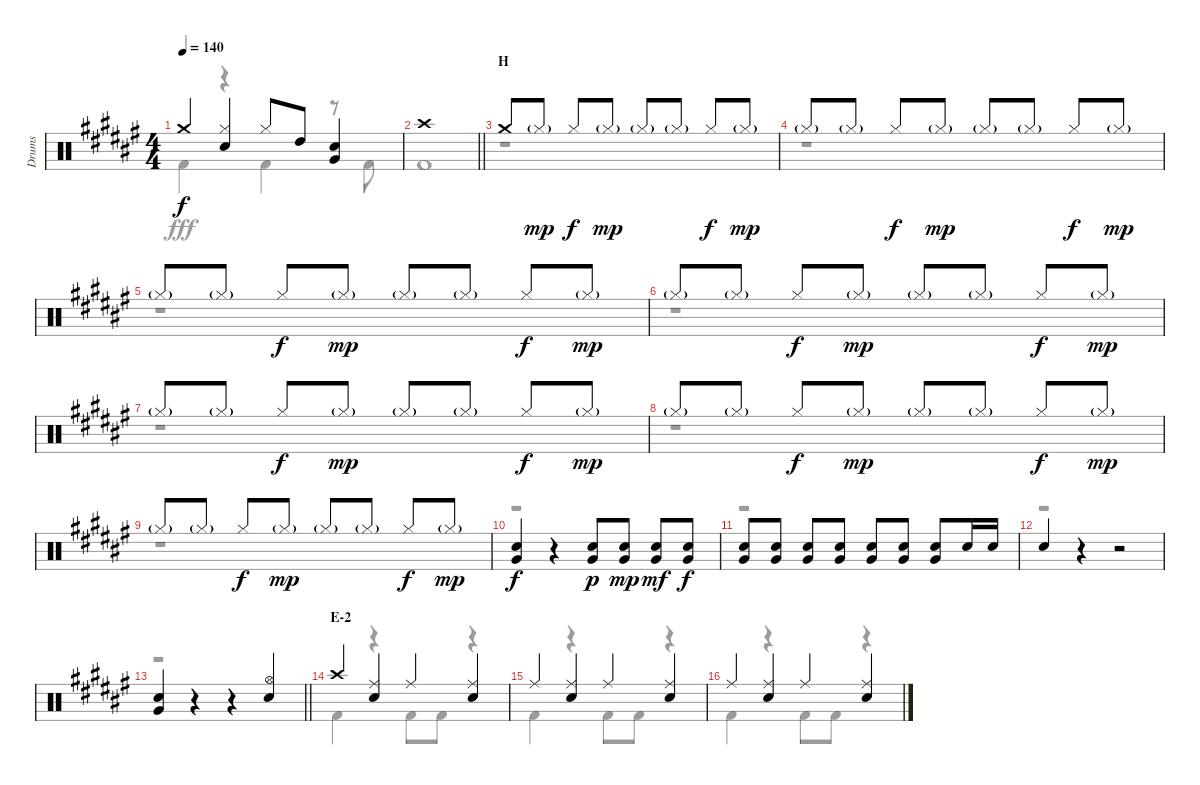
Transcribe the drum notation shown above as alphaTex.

\track ("Drums" "Drums") {instrument percussion}
\staff {score}
\articulation defaults
\voice
\ts (4 4)
\tempo 140
\clef neutral
\ks f# "Crash medium (hit)".4{dy f}
("Hi-Hat (closed)" "Snare (hit) 2").4 "Hi-Hat (closed)".8 "High Tom (hit)".8 ("Snare (hit) 2" "Very Low Tom (hit)").4 |
\barLineRight lightlight "Crash high (hit)".1
|
\section ("" "H")
"Crash medium (hit)".8 "Hi-Hat (closed)"{g}.8{dy mp} "Hi-Hat (closed)".8{dy f} "Hi-Hat (closed)"{g}.8{dy mp} "Hi-Hat (closed)"{g}.8 "Hi-Hat (closed)"{g}.8 "Hi-Hat (closed)".8{dy f} "Hi-Hat (closed)"{g}.8{dy mp} |
"Hi-Hat (closed)"{g}.8 "Hi-Hat (closed)"{g}.8 "Hi-Hat (closed)".8{dy f} "Hi-Hat (closed)"{g}.8{dy mp} "Hi-Hat (closed)"{g}.8 "Hi-Hat (closed)"{g}.8 "Hi-Hat (closed)".8{dy f} "Hi-Hat (closed)"{g}.8{dy mp} |
"Hi-Hat (closed)"{g}.8 "Hi-Hat (closed)"{g}.8 "Hi-Hat (closed)".8{dy f} "Hi-Hat (closed)"{g}.8{dy mp} "Hi-Hat (closed)"{g}.8 "Hi-Hat (closed)"{g}.8 "Hi-Hat (closed)".8{dy f} "Hi-Hat (closed)"{g}.8{dy mp} |
"Hi-Hat (closed)"{g}.8 "Hi-Hat (closed)"{g}.8 "Hi-Hat (closed)".8{dy f} "Hi-Hat (closed)"{g}.8{dy mp} "Hi-Hat (closed)"{g}.8 "Hi-Hat (closed)"{g}.8 "Hi-Hat (closed)".8{dy f} "Hi-Hat (closed)"{g}.8{dy mp} |
"Hi-Hat (closed)"{g}.8 "Hi-Hat (closed)"{g}.8 "Hi-Hat (closed)".8{dy f} "Hi-Hat (closed)"{g}.8{dy mp} "Hi-Hat (closed)"{g}.8 "Hi-Hat (closed)"{g}.8 "Hi-Hat (closed)".8{dy f} "Hi-Hat (closed)"{g}.8{dy mp} |
"Hi-Hat (closed)"{g}.8 "Hi-Hat (closed)"{g}.8 "Hi-Hat (closed)".8{dy f} "Hi-Hat (closed)"{g}.8{dy mp} "Hi-Hat (closed)"{g}.8 "Hi-Hat (closed)"{g}.8 "Hi-Hat (closed)".8{dy f} "Hi-Hat (closed)"{g}.8{dy mp} |
"Hi-Hat (closed)"{g}.8 "Hi-Hat (closed)"{g}.8 "Hi-Hat (closed)".8{dy f} "Hi-Hat (closed)"{g}.8{dy mp} "Hi-Hat (closed)"{g}.8 "Hi-Hat (closed)"{g}.8 "Hi-Hat (closed)".8{dy f} "Hi-Hat (closed)"{g}.8{dy mp} |
("Snare (hit) 2" "Very Low Tom (hit)").4{dy f} r.4 ("Snare (hit) 2" "Very Low Tom (hit)").8{dy p} ("Snare (hit) 2" "Very Low Tom (hit)").8{dy mp} ("Snare (hit) 2" "Very Low Tom (hit)").8{dy mf} ("Snare (hit) 2" "Very Low Tom (hit)").8{dy f} |
("Snare (hit) 2" "Very Low Tom (hit)").8 ("Snare (hit) 2" "Very Low Tom (hit)").8 ("Snare (hit) 2" "Very Low Tom (hit)").8 ("Snare (hit) 2" "Very Low Tom (hit)").8 ("Snare (hit) 2" "Very Low Tom (hit)").8 ("Snare (hit) 2" "Very Low Tom (hit)").8 ("Snare (hit) 2" "Very Low Tom (hit)").8 "Snare (hit) 2".16 "Snare (hit) 2".16 |
"Snare (hit) 2".4 r.4 r.2 |
\barLineRight lightlight
("Snare (hit) 2" "Very Low Tom (hit)").4 r.4 r.4 ("Hi-Hat (open)" "Snare (hit) 2").4 |
\section ("" "E-2")
"Crash high (hit)".4 ("Ride (middle)" "Snare (hit) 2").4 "Ride (middle)".4 ("Ride (middle)" "Snare (hit) 2").4 |
"Ride (middle)".4 ("Ride (middle)" "Snare (hit) 2").4 "Ride (middle)".4 ("Ride (middle)" "Snare (hit) 2").4 |
"Ride (middle)".4 ("Ride (middle)" "Snare (hit) 2").4 "Ride (middle)".4 ("Ride (middle)" "Snare (hit) 2").4
\voice
\clef neutral
\ottava regular
\simile none
\ks f# "Kick (hit) 2".4{dy fff}
r.4 "Kick (hit) 2".4 r.8 "Kick (hit) 2".8 |
\barLineRight lightlight "Kick (hit) 2".1
|
r.1 |
r.1 |
r.1 |
r.1 |
r.1 |
r.1 |
r.1 |
r.1 |
r.1 |
r.1 |
\barLineRight lightlight
r.1 |
"Kick (hit) 2".4 r.4 "Kick (hit) 2".8 "Kick (hit) 2".8 r.4 |
"Kick (hit) 2".4 r.4 "Kick (hit) 2".8 "Kick (hit) 2".8 r.4 |
"Kick (hit) 2".4 r.4 "Kick (hit) 2".8 "Kick (hit) 2".8 r.4
